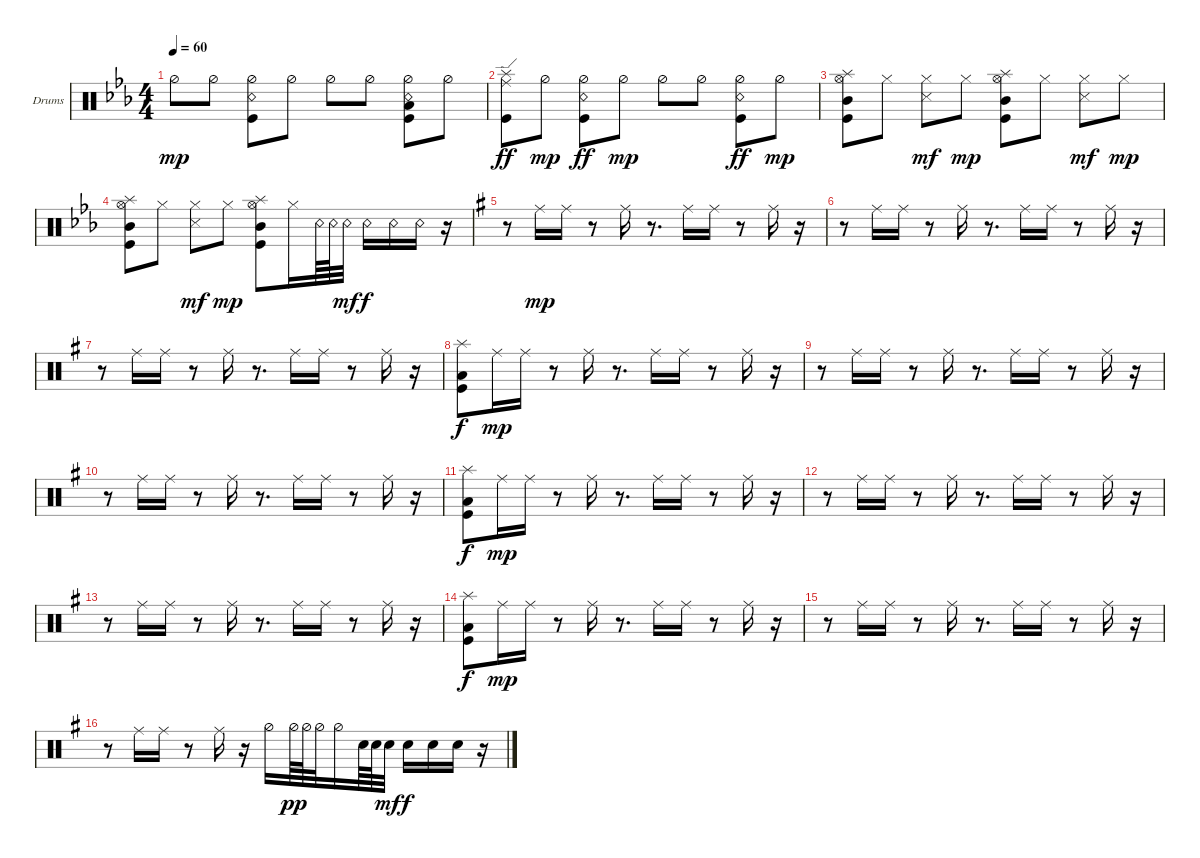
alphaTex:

\defaultSystemsLayout 4
\bracketExtendMode groupsimilarinstruments
\firstSystemTrackNameOrientation horizontal
\otherSystemsTrackNameOrientation horizontal
\track ("Drumkit (Darrell Sweet)" "Drums") {instrument percussion}
\staff {score}
\articulation defaults
\ts (4 4)
\tempo 60
\clef neutral
\ks cminor "Hi-Hat (half)".8{dy mp} "Hi-Hat (half)".8
("Hi-Hat (half)" "Kick (hit)" "Snare (rim shot)").8 "Hi-Hat (half)".8 "Hi-Hat (half)".8 "Hi-Hat (half)".8 ("Hi-Hat (half)" "Low Tom (hit)" "Kick (hit)" "Snare (rim shot)").8 "Hi-Hat (half)".8 |
("Splash (hit)" "Kick (hit)" "Ride (edge)").8{dy ff} "Hi-Hat (half)".8{dy mp} ("Hi-Hat (half)" "Kick (hit)" "Snare (rim shot)").8{dy ff} "Hi-Hat (half)".8{dy mp} "Hi-Hat (half)".8 "Hi-Hat (half)".8 ("Hi-Hat (half)" "Kick (hit)" "Snare (rim shot)").8{dy ff} "Hi-Hat (half)".8{dy mp} |
("Kick (hit)" "Hi-Hat (open)" "Splash (hit)" "Mid Tom (hit)").8 "Hi-Hat (closed)".8 ("Hi-Hat (closed)" "Snare (side stick) 3").8{dy mf} "Hi-Hat (closed)".8{dy mp} ("Kick (hit)" "Hi-Hat (open)" "Splash (hit)" "Mid Tom (hit)").8 "Hi-Hat (closed)".8 ("Hi-Hat (closed)" "Snare (side stick) 3").8{dy mf} "Hi-Hat (closed)".8{dy mp} |
("Kick (hit)" "Hi-Hat (open)" "Splash (hit)" "Mid Tom (hit)").8 "Hi-Hat (closed)".8 ("Hi-Hat (closed)" "Snare (side stick) 3").8{dy mf} "Hi-Hat (closed)".8{dy mp} ("Kick (hit)" "Hi-Hat (open)" "Splash (hit)" "Mid Tom (hit)").8 "Hi-Hat (closed)".16 "Snare (rim shot)".64 "Snare (rim shot)".64 "Snare (rim shot)".32{dy mf} "Snare (rim shot)".16{dy f} "Snare (rim shot)".16 "Snare (rim shot)".16 r.16 |
\ks eminor
r.8 "Ride (middle)".16{dy mp} "Ride (middle)".16 r.8 "Ride (middle)".16 r.8{d} "Ride (middle)".16 "Ride (middle)".16 r.8 "Ride (middle)".16 r.16 |
r.8 "Ride (middle)".16 "Ride (middle)".16 r.8 "Ride (middle)".16 r.8{d} "Ride (middle)".16 "Ride (middle)".16 r.8 "Ride (middle)".16 r.16 |
r.8 "Ride (middle)".16 "Ride (middle)".16 r.8 "Ride (middle)".16 r.8{d} "Ride (middle)".16 "Ride (middle)".16 r.8 "Ride (middle)".16 r.16 |
("Low Tom (hit)" "Splash (hit)" "Kick (hit)").8{dy f} "Ride (middle)".16{dy mp} "Ride (middle)".16 r.8 "Ride (middle)".16 r.8{d} "Ride (middle)".16 "Ride (middle)".16 r.8 "Ride (middle)".16 r.16 |
r.8 "Ride (middle)".16 "Ride (middle)".16 r.8 "Ride (middle)".16 r.8{d} "Ride (middle)".16 "Ride (middle)".16 r.8 "Ride (middle)".16 r.16 |
r.8 "Ride (middle)".16 "Ride (middle)".16 r.8 "Ride (middle)".16 r.8{d} "Ride (middle)".16 "Ride (middle)".16 r.8 "Ride (middle)".16 r.16 |
("Low Tom (hit)" "Splash (hit)" "Kick (hit)").8{dy f} "Ride (middle)".16{dy mp} "Ride (middle)".16 r.8 "Ride (middle)".16 r.8{d} "Ride (middle)".16 "Ride (middle)".16 r.8 "Ride (middle)".16 r.16 |
r.8 "Ride (middle)".16 "Ride (middle)".16 r.8 "Ride (middle)".16 r.8{d} "Ride (middle)".16 "Ride (middle)".16 r.8 "Ride (middle)".16 r.16 |
r.8 "Ride (middle)".16 "Ride (middle)".16 r.8 "Ride (middle)".16 r.8{d} "Ride (middle)".16 "Ride (middle)".16 r.8 "Ride (middle)".16 r.16 |
("Low Tom (hit)" "Splash (hit)" "Kick (hit)").8{dy f} "Ride (middle)".16{dy mp} "Ride (middle)".16 r.8 "Ride (middle)".16 r.8{d} "Ride (middle)".16 "Ride (middle)".16 r.8 "Ride (middle)".16 r.16 |
r.8 "Ride (middle)".16 "Ride (middle)".16 r.8 "Ride (middle)".16 r.8{d} "Ride (middle)".16 "Ride (middle)".16 r.8 "Ride (middle)".16 r.16 |
r.8 "Ride (middle)".16 "Ride (middle)".16 r.8 "Ride (middle)".16 r.16 "Hi-Hat (half)".16 "Hi-Hat (half)".64{dy pp} "Hi-Hat (half)".64 "Hi-Hat (half)".32 "Hi-Hat (half)".16 "Snare (hit) 2".64 "Snare (hit) 2".64 "Snare (hit) 2".32{dy mf} "Snare (hit) 2".16{dy f} "Snare (hit) 2".16 "Snare (hit) 2".16 r.16
